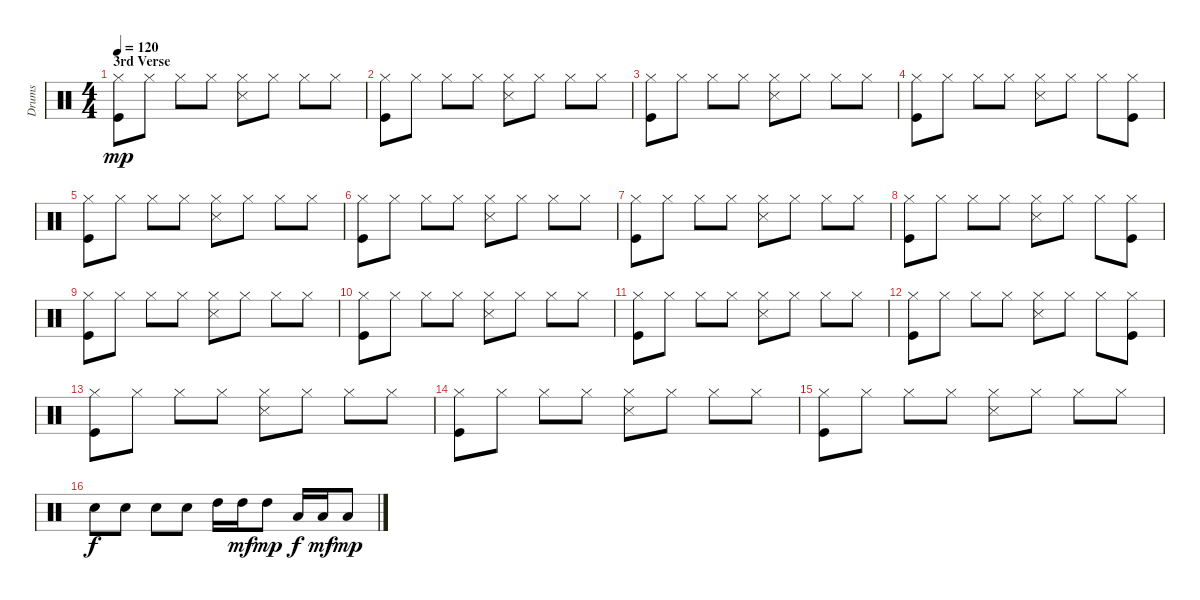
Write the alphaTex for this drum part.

\track ("Drums" "Drums") {instrument percussion}
\staff {score}
\articulation defaults
\ts (4 4)
\section ("" "3rd Verse")
\tempo 120
\clef neutral
\ks c
("Hi-Hat (closed)" "Kick (hit)").8{dy mp} "Hi-Hat (closed)".8 "Hi-Hat (closed)".8 "Hi-Hat (closed)".8 ("Hi-Hat (closed)" "Metronome (hit)").8 "Hi-Hat (closed)".8 "Hi-Hat (closed)".8 "Hi-Hat (closed)".8 |
("Hi-Hat (closed)" "Kick (hit)").8 "Hi-Hat (closed)".8 "Hi-Hat (closed)".8 "Hi-Hat (closed)".8 ("Hi-Hat (closed)" "Metronome (hit)").8 "Hi-Hat (closed)".8 "Hi-Hat (closed)".8 "Hi-Hat (closed)".8 |
("Hi-Hat (closed)" "Kick (hit)").8 "Hi-Hat (closed)".8 "Hi-Hat (closed)".8 "Hi-Hat (closed)".8 ("Hi-Hat (closed)" "Metronome (hit)").8 "Hi-Hat (closed)".8 "Hi-Hat (closed)".8 "Hi-Hat (closed)".8 |
("Hi-Hat (closed)" "Kick (hit)").8 "Hi-Hat (closed)".8 "Hi-Hat (closed)".8 "Hi-Hat (closed)".8 ("Hi-Hat (closed)" "Metronome (hit)").8 "Hi-Hat (closed)".8 "Hi-Hat (closed)".8 ("Hi-Hat (closed)" "Kick (hit)").8 |
("Hi-Hat (closed)" "Kick (hit)").8 "Hi-Hat (closed)".8 "Hi-Hat (closed)".8 "Hi-Hat (closed)".8 ("Hi-Hat (closed)" "Metronome (hit)").8 "Hi-Hat (closed)".8 "Hi-Hat (closed)".8 "Hi-Hat (closed)".8 |
("Hi-Hat (closed)" "Kick (hit)").8 "Hi-Hat (closed)".8 "Hi-Hat (closed)".8 "Hi-Hat (closed)".8 ("Hi-Hat (closed)" "Metronome (hit)").8 "Hi-Hat (closed)".8 "Hi-Hat (closed)".8 "Hi-Hat (closed)".8 |
("Hi-Hat (closed)" "Kick (hit)").8 "Hi-Hat (closed)".8 "Hi-Hat (closed)".8 "Hi-Hat (closed)".8 ("Hi-Hat (closed)" "Metronome (hit)").8 "Hi-Hat (closed)".8 "Hi-Hat (closed)".8 "Hi-Hat (closed)".8 |
("Hi-Hat (closed)" "Kick (hit)").8 "Hi-Hat (closed)".8 "Hi-Hat (closed)".8 "Hi-Hat (closed)".8 ("Hi-Hat (closed)" "Metronome (hit)").8 "Hi-Hat (closed)".8 "Hi-Hat (closed)".8 ("Hi-Hat (closed)" "Kick (hit)").8 |
("Hi-Hat (closed)" "Kick (hit)").8 "Hi-Hat (closed)".8 "Hi-Hat (closed)".8 "Hi-Hat (closed)".8 ("Hi-Hat (closed)" "Metronome (hit)").8 "Hi-Hat (closed)".8 "Hi-Hat (closed)".8 "Hi-Hat (closed)".8 |
("Hi-Hat (closed)" "Kick (hit)").8 "Hi-Hat (closed)".8 "Hi-Hat (closed)".8 "Hi-Hat (closed)".8 ("Hi-Hat (closed)" "Metronome (hit)").8 "Hi-Hat (closed)".8 "Hi-Hat (closed)".8 "Hi-Hat (closed)".8 |
("Hi-Hat (closed)" "Kick (hit)").8 "Hi-Hat (closed)".8 "Hi-Hat (closed)".8 "Hi-Hat (closed)".8 ("Hi-Hat (closed)" "Metronome (hit)").8 "Hi-Hat (closed)".8 "Hi-Hat (closed)".8 "Hi-Hat (closed)".8 |
("Hi-Hat (closed)" "Kick (hit)").8 "Hi-Hat (closed)".8 "Hi-Hat (closed)".8 "Hi-Hat (closed)".8 ("Hi-Hat (closed)" "Metronome (hit)").8 "Hi-Hat (closed)".8 "Hi-Hat (closed)".8 ("Hi-Hat (closed)" "Kick (hit)").8 |
("Hi-Hat (closed)" "Kick (hit)").8 "Hi-Hat (closed)".8 "Hi-Hat (closed)".8 "Hi-Hat (closed)".8 ("Hi-Hat (closed)" "Metronome (hit)").8 "Hi-Hat (closed)".8 "Hi-Hat (closed)".8 "Hi-Hat (closed)".8 |
("Hi-Hat (closed)" "Kick (hit)").8 "Hi-Hat (closed)".8 "Hi-Hat (closed)".8 "Hi-Hat (closed)".8 ("Hi-Hat (closed)" "Metronome (hit)").8 "Hi-Hat (closed)".8 "Hi-Hat (closed)".8 "Hi-Hat (closed)".8 |
("Hi-Hat (closed)" "Kick (hit)").8 "Hi-Hat (closed)".8 "Hi-Hat (closed)".8 "Hi-Hat (closed)".8 ("Hi-Hat (closed)" "Metronome (hit)").8 "Hi-Hat (closed)".8 "Hi-Hat (closed)".8 "Hi-Hat (closed)".8 |
"Electric Snare (hit)".8{dy f} "Electric Snare (hit)".8 "Electric Snare (hit)".8 "Electric Snare (hit)".8 "High Tom (hit)".16 "High Tom (hit)".16{dy mf} "High Tom (hit)".8{dy mp} "Low Tom (hit)".16{dy f} "Low Tom (hit)".16{dy mf} "Low Tom (hit)".8{dy mp}
